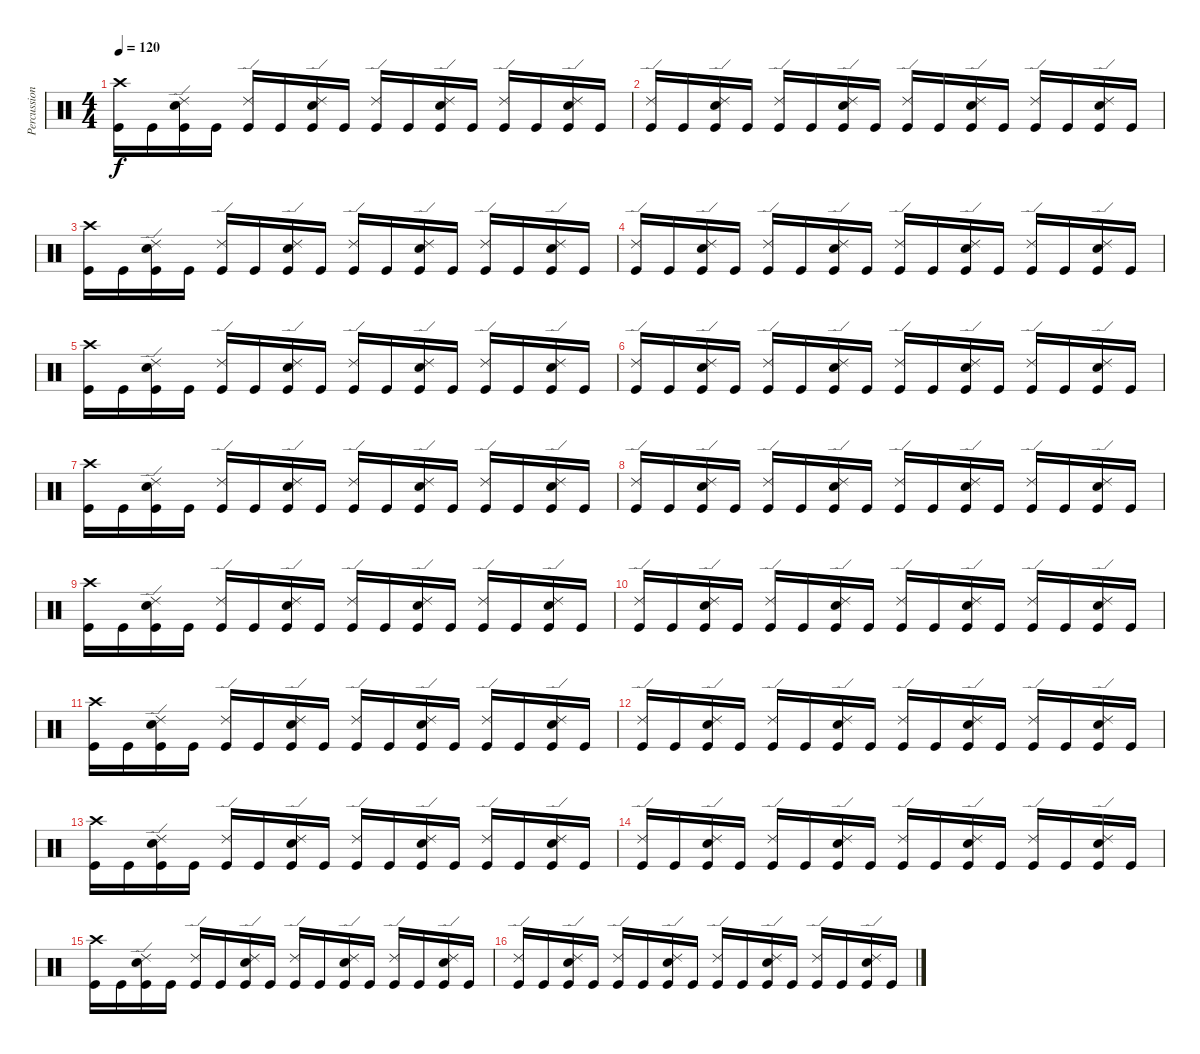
\track ("Percussion(Satish)" "Percussion") {instrument percussion}
\staff {score}
\articulation defaults
\ts (4 4)
\tempo 120
\clef neutral
\ks c
("Crash high (hit)" "Kick (hit)").16{dy f} "Kick (hit)".16 ("Ride (edge) 2" "Electric Snare (hit)" "Kick (hit)").16 "Kick (hit)".16 ("Ride (edge) 2" "Kick (hit)").16 "Kick (hit)".16 ("Ride (edge) 2" "Electric Snare (hit)" "Kick (hit)").16 "Kick (hit)".16 ("Ride (edge) 2" "Kick (hit)").16 "Kick (hit)".16 ("Ride (edge) 2" "Electric Snare (hit)" "Kick (hit)").16 "Kick (hit)".16 ("Ride (edge) 2" "Kick (hit)").16 "Kick (hit)".16 ("Ride (edge) 2" "Electric Snare (hit)" "Kick (hit)").16 "Kick (hit)".16 |
("Ride (edge) 2" "Kick (hit)").16 "Kick (hit)".16 ("Ride (edge) 2" "Electric Snare (hit)" "Kick (hit)").16 "Kick (hit)".16 ("Ride (edge) 2" "Kick (hit)").16 "Kick (hit)".16 ("Ride (edge) 2" "Electric Snare (hit)" "Kick (hit)").16 "Kick (hit)".16 ("Ride (edge) 2" "Kick (hit)").16 "Kick (hit)".16 ("Ride (edge) 2" "Electric Snare (hit)" "Kick (hit)").16 "Kick (hit)".16 ("Ride (edge) 2" "Kick (hit)").16 "Kick (hit)".16 ("Ride (edge) 2" "Electric Snare (hit)" "Kick (hit)").16 "Kick (hit)".16 |
("Crash high (hit)" "Kick (hit)").16 "Kick (hit)".16 ("Ride (edge) 2" "Electric Snare (hit)" "Kick (hit)").16 "Kick (hit)".16 ("Ride (edge) 2" "Kick (hit)").16 "Kick (hit)".16 ("Ride (edge) 2" "Electric Snare (hit)" "Kick (hit)").16 "Kick (hit)".16 ("Ride (edge) 2" "Kick (hit)").16 "Kick (hit)".16 ("Ride (edge) 2" "Electric Snare (hit)" "Kick (hit)").16 "Kick (hit)".16 ("Ride (edge) 2" "Kick (hit)").16 "Kick (hit)".16 ("Ride (edge) 2" "Electric Snare (hit)" "Kick (hit)").16 "Kick (hit)".16 |
("Ride (edge) 2" "Kick (hit)").16 "Kick (hit)".16 ("Ride (edge) 2" "Electric Snare (hit)" "Kick (hit)").16 "Kick (hit)".16 ("Ride (edge) 2" "Kick (hit)").16 "Kick (hit)".16 ("Ride (edge) 2" "Electric Snare (hit)" "Kick (hit)").16 "Kick (hit)".16 ("Ride (edge) 2" "Kick (hit)").16 "Kick (hit)".16 ("Ride (edge) 2" "Electric Snare (hit)" "Kick (hit)").16 "Kick (hit)".16 ("Ride (edge) 2" "Kick (hit)").16 "Kick (hit)".16 ("Ride (edge) 2" "Electric Snare (hit)" "Kick (hit)").16 "Kick (hit)".16 |
("Crash high (hit)" "Kick (hit)").16 "Kick (hit)".16 ("Ride (edge) 2" "Electric Snare (hit)" "Kick (hit)").16 "Kick (hit)".16 ("Ride (edge) 2" "Kick (hit)").16 "Kick (hit)".16 ("Ride (edge) 2" "Electric Snare (hit)" "Kick (hit)").16 "Kick (hit)".16 ("Ride (edge) 2" "Kick (hit)").16 "Kick (hit)".16 ("Ride (edge) 2" "Electric Snare (hit)" "Kick (hit)").16 "Kick (hit)".16 ("Ride (edge) 2" "Kick (hit)").16 "Kick (hit)".16 ("Ride (edge) 2" "Electric Snare (hit)" "Kick (hit)").16 "Kick (hit)".16 |
("Ride (edge) 2" "Kick (hit)").16 "Kick (hit)".16 ("Ride (edge) 2" "Electric Snare (hit)" "Kick (hit)").16 "Kick (hit)".16 ("Ride (edge) 2" "Kick (hit)").16 "Kick (hit)".16 ("Ride (edge) 2" "Electric Snare (hit)" "Kick (hit)").16 "Kick (hit)".16 ("Ride (edge) 2" "Kick (hit)").16 "Kick (hit)".16 ("Ride (edge) 2" "Electric Snare (hit)" "Kick (hit)").16 "Kick (hit)".16 ("Ride (edge) 2" "Kick (hit)").16 "Kick (hit)".16 ("Ride (edge) 2" "Electric Snare (hit)" "Kick (hit)").16 "Kick (hit)".16 |
("Crash high (hit)" "Kick (hit)").16 "Kick (hit)".16 ("Ride (edge) 2" "Electric Snare (hit)" "Kick (hit)").16 "Kick (hit)".16 ("Ride (edge) 2" "Kick (hit)").16 "Kick (hit)".16 ("Ride (edge) 2" "Electric Snare (hit)" "Kick (hit)").16 "Kick (hit)".16 ("Ride (edge) 2" "Kick (hit)").16 "Kick (hit)".16 ("Ride (edge) 2" "Electric Snare (hit)" "Kick (hit)").16 "Kick (hit)".16 ("Ride (edge) 2" "Kick (hit)").16 "Kick (hit)".16 ("Ride (edge) 2" "Electric Snare (hit)" "Kick (hit)").16 "Kick (hit)".16 |
("Ride (edge) 2" "Kick (hit)").16 "Kick (hit)".16 ("Ride (edge) 2" "Electric Snare (hit)" "Kick (hit)").16 "Kick (hit)".16 ("Ride (edge) 2" "Kick (hit)").16 "Kick (hit)".16 ("Ride (edge) 2" "Electric Snare (hit)" "Kick (hit)").16 "Kick (hit)".16 ("Ride (edge) 2" "Kick (hit)").16 "Kick (hit)".16 ("Ride (edge) 2" "Electric Snare (hit)" "Kick (hit)").16 "Kick (hit)".16 ("Ride (edge) 2" "Kick (hit)").16 "Kick (hit)".16 ("Ride (edge) 2" "Electric Snare (hit)" "Kick (hit)").16 "Kick (hit)".16 |
("Crash high (hit)" "Kick (hit)").16 "Kick (hit)".16 ("Ride (edge) 2" "Electric Snare (hit)" "Kick (hit)").16 "Kick (hit)".16 ("Ride (edge) 2" "Kick (hit)").16 "Kick (hit)".16 ("Ride (edge) 2" "Electric Snare (hit)" "Kick (hit)").16 "Kick (hit)".16 ("Ride (edge) 2" "Kick (hit)").16 "Kick (hit)".16 ("Ride (edge) 2" "Electric Snare (hit)" "Kick (hit)").16 "Kick (hit)".16 ("Ride (edge) 2" "Kick (hit)").16 "Kick (hit)".16 ("Ride (edge) 2" "Electric Snare (hit)" "Kick (hit)").16 "Kick (hit)".16 |
("Ride (edge) 2" "Kick (hit)").16 "Kick (hit)".16 ("Ride (edge) 2" "Electric Snare (hit)" "Kick (hit)").16 "Kick (hit)".16 ("Ride (edge) 2" "Kick (hit)").16 "Kick (hit)".16 ("Ride (edge) 2" "Electric Snare (hit)" "Kick (hit)").16 "Kick (hit)".16 ("Ride (edge) 2" "Kick (hit)").16 "Kick (hit)".16 ("Ride (edge) 2" "Electric Snare (hit)" "Kick (hit)").16 "Kick (hit)".16 ("Ride (edge) 2" "Kick (hit)").16 "Kick (hit)".16 ("Ride (edge) 2" "Electric Snare (hit)" "Kick (hit)").16 "Kick (hit)".16 |
("Crash high (hit)" "Kick (hit)").16 "Kick (hit)".16 ("Ride (edge) 2" "Electric Snare (hit)" "Kick (hit)").16 "Kick (hit)".16 ("Ride (edge) 2" "Kick (hit)").16 "Kick (hit)".16 ("Ride (edge) 2" "Electric Snare (hit)" "Kick (hit)").16 "Kick (hit)".16 ("Ride (edge) 2" "Kick (hit)").16 "Kick (hit)".16 ("Ride (edge) 2" "Electric Snare (hit)" "Kick (hit)").16 "Kick (hit)".16 ("Ride (edge) 2" "Kick (hit)").16 "Kick (hit)".16 ("Ride (edge) 2" "Electric Snare (hit)" "Kick (hit)").16 "Kick (hit)".16 |
("Ride (edge) 2" "Kick (hit)").16 "Kick (hit)".16 ("Ride (edge) 2" "Electric Snare (hit)" "Kick (hit)").16 "Kick (hit)".16 ("Ride (edge) 2" "Kick (hit)").16 "Kick (hit)".16 ("Ride (edge) 2" "Electric Snare (hit)" "Kick (hit)").16 "Kick (hit)".16 ("Ride (edge) 2" "Kick (hit)").16 "Kick (hit)".16 ("Ride (edge) 2" "Electric Snare (hit)" "Kick (hit)").16 "Kick (hit)".16 ("Ride (edge) 2" "Kick (hit)").16 "Kick (hit)".16 ("Ride (edge) 2" "Electric Snare (hit)" "Kick (hit)").16 "Kick (hit)".16 |
("Crash high (hit)" "Kick (hit)").16 "Kick (hit)".16 ("Ride (edge) 2" "Electric Snare (hit)" "Kick (hit)").16 "Kick (hit)".16 ("Ride (edge) 2" "Kick (hit)").16 "Kick (hit)".16 ("Ride (edge) 2" "Electric Snare (hit)" "Kick (hit)").16 "Kick (hit)".16 ("Ride (edge) 2" "Kick (hit)").16 "Kick (hit)".16 ("Ride (edge) 2" "Electric Snare (hit)" "Kick (hit)").16 "Kick (hit)".16 ("Ride (edge) 2" "Kick (hit)").16 "Kick (hit)".16 ("Ride (edge) 2" "Electric Snare (hit)" "Kick (hit)").16 "Kick (hit)".16 |
("Ride (edge) 2" "Kick (hit)").16 "Kick (hit)".16 ("Ride (edge) 2" "Electric Snare (hit)" "Kick (hit)").16 "Kick (hit)".16 ("Ride (edge) 2" "Kick (hit)").16 "Kick (hit)".16 ("Ride (edge) 2" "Electric Snare (hit)" "Kick (hit)").16 "Kick (hit)".16 ("Ride (edge) 2" "Kick (hit)").16 "Kick (hit)".16 ("Ride (edge) 2" "Electric Snare (hit)" "Kick (hit)").16 "Kick (hit)".16 ("Ride (edge) 2" "Kick (hit)").16 "Kick (hit)".16 ("Ride (edge) 2" "Electric Snare (hit)" "Kick (hit)").16 "Kick (hit)".16 |
("Crash high (hit)" "Kick (hit)").16 "Kick (hit)".16 ("Ride (edge) 2" "Electric Snare (hit)" "Kick (hit)").16 "Kick (hit)".16 ("Ride (edge) 2" "Kick (hit)").16 "Kick (hit)".16 ("Ride (edge) 2" "Electric Snare (hit)" "Kick (hit)").16 "Kick (hit)".16 ("Ride (edge) 2" "Kick (hit)").16 "Kick (hit)".16 ("Ride (edge) 2" "Electric Snare (hit)" "Kick (hit)").16 "Kick (hit)".16 ("Ride (edge) 2" "Kick (hit)").16 "Kick (hit)".16 ("Ride (edge) 2" "Electric Snare (hit)" "Kick (hit)").16 "Kick (hit)".16 |
("Ride (edge) 2" "Kick (hit)").16 "Kick (hit)".16 ("Ride (edge) 2" "Electric Snare (hit)" "Kick (hit)").16 "Kick (hit)".16 ("Ride (edge) 2" "Kick (hit)").16 "Kick (hit)".16 ("Ride (edge) 2" "Electric Snare (hit)" "Kick (hit)").16 "Kick (hit)".16 ("Ride (edge) 2" "Kick (hit)").16 "Kick (hit)".16 ("Ride (edge) 2" "Electric Snare (hit)" "Kick (hit)").16 "Kick (hit)".16 ("Ride (edge) 2" "Kick (hit)").16 "Kick (hit)".16 ("Ride (edge) 2" "Electric Snare (hit)" "Kick (hit)").16 "Kick (hit)".16
